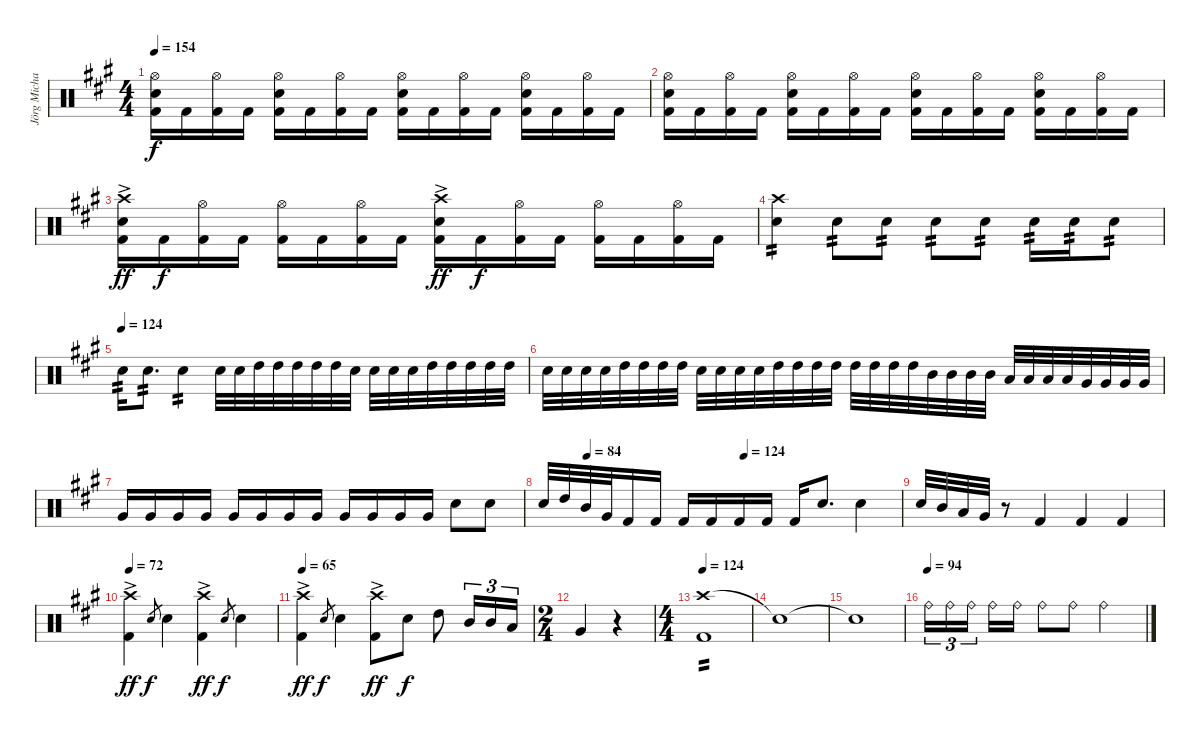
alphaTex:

\track ("Jörg Michael" "Jörg Micha") {instrument percussion}
\staff {score}
\articulation defaults
\ts (4 4)
\tempo 154
\clef neutral
\ks a
("Hi-Hat (open)" "Kick (hit) 2" "Electric Snare (hit)").16{dy f} "Kick (hit) 2".16 ("Kick (hit) 2" "Hi-Hat (open)").16 "Kick (hit) 2".16 ("Hi-Hat (open)" "Kick (hit) 2" "Electric Snare (hit)").16 "Kick (hit) 2".16 ("Hi-Hat (open)" "Kick (hit) 2").16 "Kick (hit) 2".16 ("Hi-Hat (open)" "Kick (hit) 2" "Electric Snare (hit)").16 "Kick (hit) 2".16 ("Hi-Hat (open)" "Kick (hit) 2").16 "Kick (hit) 2".16 ("Hi-Hat (open)" "Kick (hit) 2" "Electric Snare (hit)").16 "Kick (hit) 2".16 ("Hi-Hat (open)" "Kick (hit) 2").16 "Kick (hit) 2".16 |
("Hi-Hat (open)" "Kick (hit) 2" "Electric Snare (hit)").16 "Kick (hit) 2".16 ("Kick (hit) 2" "Hi-Hat (open)").16 "Kick (hit) 2".16 ("Hi-Hat (open)" "Kick (hit) 2" "Electric Snare (hit)").16 "Kick (hit) 2".16 ("Hi-Hat (open)" "Kick (hit) 2").16 "Kick (hit) 2".16 ("Hi-Hat (open)" "Kick (hit) 2" "Electric Snare (hit)").16 "Kick (hit) 2".16 ("Hi-Hat (open)" "Kick (hit) 2").16 "Kick (hit) 2".16 ("Hi-Hat (open)" "Kick (hit) 2" "Electric Snare (hit)").16 "Kick (hit) 2".16 ("Hi-Hat (open)" "Kick (hit) 2").16 "Kick (hit) 2".16 |
("Crash high (hit)"{ac} "Kick (hit) 2"{ac} "Electric Snare (hit)"{ac}).16{dy ff} "Kick (hit) 2".16{dy f} ("Kick (hit) 2" "Hi-Hat (open)").16 "Kick (hit) 2".16 ("Hi-Hat (open)" "Kick (hit) 2").16 "Kick (hit) 2".16 ("Hi-Hat (open)" "Kick (hit) 2").16 "Kick (hit) 2".16 ("Electric Snare (hit)"{ac} "Kick (hit) 2"{ac} "Crash high (hit)"{ac}).16{dy ff} "Kick (hit) 2".16{dy f} ("Kick (hit) 2" "Hi-Hat (open)").16 "Kick (hit) 2".16 ("Kick (hit) 2" "Hi-Hat (open)").16 "Kick (hit) 2".16 ("Kick (hit) 2" "Hi-Hat (open)").16 "Kick (hit) 2".16 |
("Crash high (hit)" "Electric Snare (hit)").4{tp 2} "Electric Snare (hit)".8{tp 2} "Electric Snare (hit)".8{tp 2} "Electric Snare (hit)".8{tp 2} "Electric Snare (hit)".8{tp 2} "Electric Snare (hit)".16{tp 2} "Electric Snare (hit)".16{tp 2} "Electric Snare (hit)".8{tp 2} |
\tempo (124)
"Electric Snare (hit)".16{tp 2} "Electric Snare (hit)".8{d tp 2} "Electric Snare (hit)".4{tp 2} "Electric Snare (hit)".32 "Electric Snare (hit)".32 "High Tom (hit)".32 "High Tom (hit)".32 "High Tom (hit)".32 "High Tom (hit)".32 "High Tom (hit)".32 "Electric Snare (hit)".32 "Electric Snare (hit)".32 "Electric Snare (hit)".32 "Electric Snare (hit)".32 "High Tom (hit)".32 "High Tom (hit)".32 "High Tom (hit)".32 "High Tom (hit)".32 "High Tom (hit)".32 |
"Electric Snare (hit)".32 "Electric Snare (hit)".32 "Electric Snare (hit)".32 "Electric Snare (hit)".32 "High Tom (hit)".32 "High Tom (hit)".32 "High Tom (hit)".32 "High Tom (hit)".32 "Electric Snare (hit)".32 "Electric Snare (hit)".32 "Electric Snare (hit)".32 "Electric Snare (hit)".32 "High Tom (hit)".32 "High Tom (hit)".32 "High Tom (hit)".32 "High Tom (hit)".32 "High Tom (hit)".32 "High Tom (hit)".32 "High Tom (hit)".32 "High Tom (hit)".32 "Mid Tom (hit)".32 "Mid Tom (hit)".32 "Mid Tom (hit)".32 "Mid Tom (hit)".32 "Low Tom (hit)".32 "Low Tom (hit)".32 "Low Tom (hit)".32 "Low Tom (hit)".32 "Very Low Tom (hit)".32 "Very Low Tom (hit)".32 "Very Low Tom (hit)".32 "Very Low Tom (hit)".32 |
"Very Low Tom (hit)".16 "Very Low Tom (hit)".16 "Very Low Tom (hit)".16 "Very Low Tom (hit)".16 "Very Low Tom (hit)".16 "Very Low Tom (hit)".16 "Very Low Tom (hit)".16 "Very Low Tom (hit)".16 "Very Low Tom (hit)".16 "Very Low Tom (hit)".16 "Very Low Tom (hit)".16 "Very Low Tom (hit)".16 "Electric Snare (hit)".8 "Electric Snare (hit)".8 |
\tempo (84 0.125)
\tempo (124 0.5625)
"Electric Snare (hit)".32 "High Tom (hit)".32 "Mid Tom (hit)".32 "Very Low Tom (hit)".32 "Kick (hit) 2".16 "Kick (hit) 2".16 "Kick (hit) 2".16 "Kick (hit) 2".16 "Kick (hit) 2".16 "Kick (hit) 2".16 "Kick (hit) 2".16 "Electric Snare (hit)".8{d} "Electric Snare (hit)".4 |
"Electric Snare (hit)".32 "Mid Tom (hit)".32 "Low Tom (hit)".32 "Very Low Tom (hit)".32 r.8 "Kick (hit) 2".4 "Kick (hit) 2".4 "Kick (hit) 2".4 |
\tempo 72
("Crash high (hit)"{ac} "Kick (hit) 2"{ac}).4{dy ff} "Electric Snare (hit)".8{gr dy f} "Electric Snare (hit)".4 ("Crash high (hit)"{ac} "Kick (hit) 2"{ac}).4{dy ff} "Electric Snare (hit)".8{gr dy f} "Electric Snare (hit)".4 |
\tempo 65
("Crash high (hit)"{ac} "Kick (hit) 2"{ac}).4{dy ff} "Electric Snare (hit)".8{gr dy f} "Electric Snare (hit)".4 ("Crash high (hit)"{ac} "Kick (hit) 2"{ac}).8{dy ff} "Electric Snare (hit)".8{dy f} "High Tom (hit)".8 "Mid Tom (hit)".16{tu (3 2)} "Mid Tom (hit)".16{tu (3 2)} "Low Tom (hit)".16{tu (3 2)} |
\ts (2 4)
"Very Low Tom (hit)".4 r.4 |
\ts (4 4)
\tempo 124
("Crash high (hit)" "Kick (hit) 2").1{tp 2} |
"Snare (hit)"{t}.1 |
"Snare (hit)"{t}.1 |
\tempo (94)
"Ride (bell)".16{tu (3 2)} "Ride (bell)".16{tu (3 2)} "Ride (bell)".16{tu (3 2) beam splitsecondary} "Ride (bell)".16 "Ride (bell)".16 "Ride (bell)".8 "Ride (bell)".8 "Ride (bell)".2
